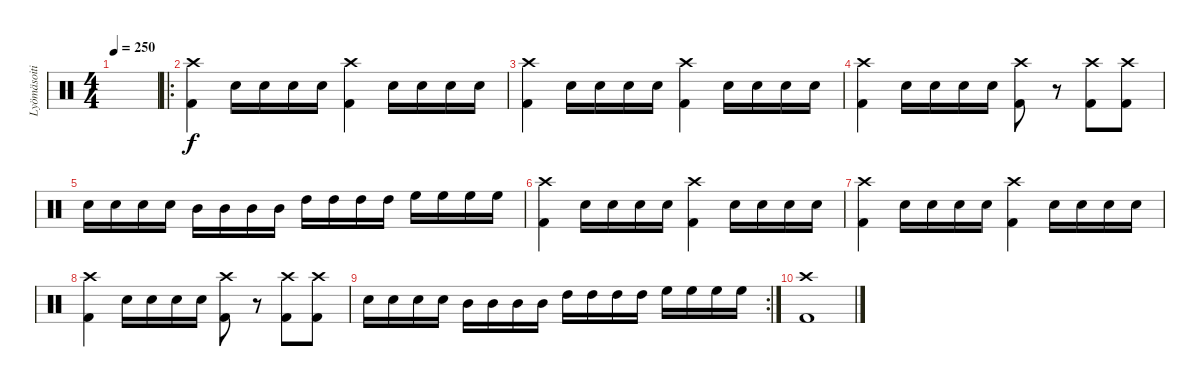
\track ("Lyömäsoitin" "Lyömäsoiti") {instrument percussion}
\staff {score}
\articulation defaults
\ts (4 4)
\tempo 250
\clef neutral
\ks c
|
\ro
("Crash high (hit)" "Kick (hit) 2").4 "Electric Snare (hit)".16 "Electric Snare (hit)".16 "Electric Snare (hit)".16 "Electric Snare (hit)".16 ("Crash high (hit)" "Kick (hit) 2").4 "Electric Snare (hit)".16 "Electric Snare (hit)".16 "Electric Snare (hit)".16 "Electric Snare (hit)".16 |
("Crash high (hit)" "Kick (hit) 2").4 "Electric Snare (hit)".16 "Electric Snare (hit)".16 "Electric Snare (hit)".16 "Electric Snare (hit)".16 ("Crash high (hit)" "Kick (hit) 2").4 "Electric Snare (hit)".16 "Electric Snare (hit)".16 "Electric Snare (hit)".16 "Electric Snare (hit)".16 |
("Crash high (hit)" "Kick (hit) 2").4 "Electric Snare (hit)".16 "Electric Snare (hit)".16 "Electric Snare (hit)".16 "Electric Snare (hit)".16 ("Crash high (hit)" "Kick (hit) 2").8 r.8 ("Crash high (hit)" "Kick (hit) 2").8 ("Crash high (hit)" "Kick (hit) 2").8 |
"Electric Snare (hit)".16 "Electric Snare (hit)".16 "Electric Snare (hit)".16 "Electric Snare (hit)".16 "Mid Tom (hit)".16 "Mid Tom (hit)".16 "Mid Tom (hit)".16 "Mid Tom (hit)".16 "High Tom (hit)".16 "High Tom (hit)".16 "High Tom (hit)".16 "High Tom (hit)".16 "High Floor Tom (hit)".16 "High Floor Tom (hit)".16 "High Floor Tom (hit)".16 "High Floor Tom (hit)".16 |
("Crash high (hit)" "Kick (hit) 2").4 "Electric Snare (hit)".16 "Electric Snare (hit)".16 "Electric Snare (hit)".16 "Electric Snare (hit)".16 ("Crash high (hit)" "Kick (hit) 2").4 "Electric Snare (hit)".16 "Electric Snare (hit)".16 "Electric Snare (hit)".16 "Electric Snare (hit)".16 |
("Crash high (hit)" "Kick (hit) 2").4 "Electric Snare (hit)".16 "Electric Snare (hit)".16 "Electric Snare (hit)".16 "Electric Snare (hit)".16 ("Crash high (hit)" "Kick (hit) 2").4 "Electric Snare (hit)".16 "Electric Snare (hit)".16 "Electric Snare (hit)".16 "Electric Snare (hit)".16 |
("Crash high (hit)" "Kick (hit) 2").4 "Electric Snare (hit)".16 "Electric Snare (hit)".16 "Electric Snare (hit)".16 "Electric Snare (hit)".16 ("Crash high (hit)" "Kick (hit) 2").8 r.8 ("Crash high (hit)" "Kick (hit) 2").8 ("Crash high (hit)" "Kick (hit) 2").8 |
\rc 2 "Electric Snare (hit)".16 "Electric Snare (hit)".16 "Electric Snare (hit)".16 "Electric Snare (hit)".16 "Mid Tom (hit)".16 "Mid Tom (hit)".16 "Mid Tom (hit)".16 "Mid Tom (hit)".16 "High Tom (hit)".16 "High Tom (hit)".16 "High Tom (hit)".16 "High Tom (hit)".16 "High Floor Tom (hit)".16 "High Floor Tom (hit)".16 "High Floor Tom (hit)".16 "High Floor Tom (hit)".16
|
("Crash high (hit)" "Kick (hit) 2").1
